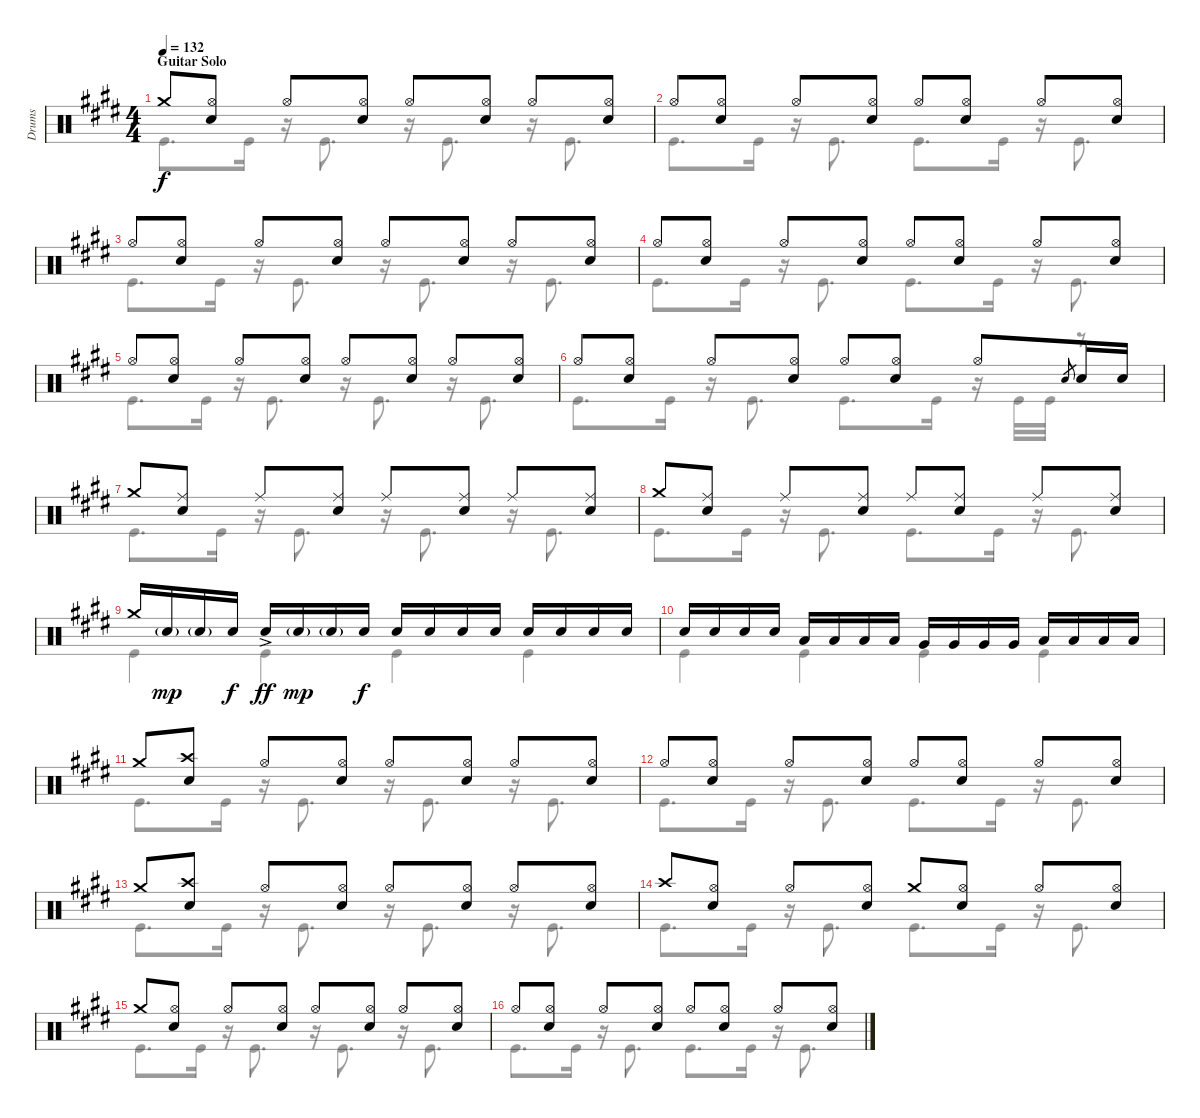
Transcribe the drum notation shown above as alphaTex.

\track ("Drums" "Drums") {instrument percussion}
\staff {score}
\articulation defaults
\voice
\ts (4 4)
\section ("" "Guitar Solo")
\tempo 132
\clef neutral
\ks c#minor "Crash medium (hit)".8{dy f}
("Hi-Hat (open)" "Electric Snare (hit)").8 "Hi-Hat (open)".8 ("Hi-Hat (open)" "Electric Snare (hit)").8 "Hi-Hat (open)".8 ("Hi-Hat (open)" "Electric Snare (hit)").8 "Hi-Hat (open)".8 ("Hi-Hat (open)" "Electric Snare (hit)").8 |
"Hi-Hat (open)".8 ("Hi-Hat (open)" "Electric Snare (hit)").8 "Hi-Hat (open)".8 ("Hi-Hat (open)" "Electric Snare (hit)").8 "Hi-Hat (open)".8 ("Hi-Hat (open)" "Electric Snare (hit)").8 "Hi-Hat (open)".8 ("Hi-Hat (open)" "Electric Snare (hit)").8 |
"Hi-Hat (open)".8 ("Hi-Hat (open)" "Electric Snare (hit)").8 "Hi-Hat (open)".8 ("Hi-Hat (open)" "Electric Snare (hit)").8 "Hi-Hat (open)".8 ("Hi-Hat (open)" "Electric Snare (hit)").8 "Hi-Hat (open)".8 ("Hi-Hat (open)" "Electric Snare (hit)").8 |
"Hi-Hat (open)".8 ("Hi-Hat (open)" "Electric Snare (hit)").8 "Hi-Hat (open)".8 ("Hi-Hat (open)" "Electric Snare (hit)").8 "Hi-Hat (open)".8 ("Hi-Hat (open)" "Electric Snare (hit)").8 "Hi-Hat (open)".8 ("Hi-Hat (open)" "Electric Snare (hit)").8 |
"Hi-Hat (open)".8 ("Hi-Hat (open)" "Electric Snare (hit)").8 "Hi-Hat (open)".8 ("Hi-Hat (open)" "Electric Snare (hit)").8 "Hi-Hat (open)".8 ("Hi-Hat (open)" "Electric Snare (hit)").8 "Hi-Hat (open)".8 ("Hi-Hat (open)" "Electric Snare (hit)").8 |
"Hi-Hat (open)".8 ("Hi-Hat (open)" "Electric Snare (hit)").8 "Hi-Hat (open)".8 ("Hi-Hat (open)" "Electric Snare (hit)").8 "Hi-Hat (open)".8 ("Hi-Hat (open)" "Electric Snare (hit)").8 "Hi-Hat (open)".8 "Electric Snare (hit)".8{gr} "Electric Snare (hit)".16 "Electric Snare (hit)".16 |
"Crash medium (hit)".8 ("Ride (middle)" "Electric Snare (hit)").8 "Ride (middle)".8 ("Ride (middle)" "Electric Snare (hit)").8 "Ride (middle)".8 ("Ride (middle)" "Electric Snare (hit)").8 "Ride (middle)".8 ("Ride (middle)" "Electric Snare (hit)").8 |
"Crash medium (hit)".8 ("Ride (middle)" "Electric Snare (hit)").8 "Ride (middle)".8 ("Ride (middle)" "Electric Snare (hit)").8 "Ride (middle)".8 ("Ride (middle)" "Electric Snare (hit)").8 "Ride (middle)".8 ("Ride (middle)" "Electric Snare (hit)").8 |
"Crash medium (hit)".16 "Electric Snare (hit)"{g}.16{dy mp} "Electric Snare (hit)"{g}.16 "Electric Snare (hit)".16{dy f} "Electric Snare (hit)"{ac}.16{dy ff} "Electric Snare (hit)"{g}.16{dy mp} "Electric Snare (hit)"{g}.16 "Electric Snare (hit)".16{dy f} "Electric Snare (hit)".16 "Electric Snare (hit)".16 "Electric Snare (hit)".16 "Electric Snare (hit)".16 "Electric Snare (hit)".16 "Electric Snare (hit)".16 "Electric Snare (hit)".16 "Electric Snare (hit)".16 |
"Electric Snare (hit)".16 "Electric Snare (hit)".16 "Electric Snare (hit)".16 "Electric Snare (hit)".16 "Low Tom (hit)".16 "Low Tom (hit)".16 "Low Tom (hit)".16 "Low Tom (hit)".16 "Very Low Tom (hit)".16 "Very Low Tom (hit)".16 "Very Low Tom (hit)".16 "Very Low Tom (hit)".16 "Low Floor Tom (hit)".16 "Low Floor Tom (hit)".16 "Low Floor Tom (hit)".16 "Low Floor Tom (hit)".16 |
"Crash medium (hit)".8 ("Crash high (hit)" "Electric Snare (hit)").8 "Hi-Hat (open)".8 ("Hi-Hat (open)" "Electric Snare (hit)").8 "Hi-Hat (open)".8 ("Hi-Hat (open)" "Electric Snare (hit)").8 "Hi-Hat (open)".8 ("Hi-Hat (open)" "Electric Snare (hit)").8 |
"Hi-Hat (open)".8 ("Hi-Hat (open)" "Electric Snare (hit)").8 "Hi-Hat (open)".8 ("Hi-Hat (open)" "Electric Snare (hit)").8 "Hi-Hat (open)".8 ("Hi-Hat (open)" "Electric Snare (hit)").8 "Hi-Hat (open)".8 ("Hi-Hat (open)" "Electric Snare (hit)").8 |
"Crash medium (hit)".8 ("Crash high (hit)" "Electric Snare (hit)").8 "Hi-Hat (open)".8 ("Hi-Hat (open)" "Electric Snare (hit)").8 "Hi-Hat (open)".8 ("Hi-Hat (open)" "Electric Snare (hit)").8 "Hi-Hat (open)".8 ("Hi-Hat (open)" "Electric Snare (hit)").8 |
"Crash high (hit)".8 ("Hi-Hat (open)" "Electric Snare (hit)").8 "Hi-Hat (open)".8 ("Hi-Hat (open)" "Electric Snare (hit)").8 "Crash medium (hit)".8 ("Hi-Hat (open)" "Electric Snare (hit)").8 "Hi-Hat (open)".8 ("Hi-Hat (open)" "Electric Snare (hit)").8 |
"Crash medium (hit)".8 ("Hi-Hat (open)" "Electric Snare (hit)").8 "Hi-Hat (open)".8 ("Hi-Hat (open)" "Electric Snare (hit)").8 "Hi-Hat (open)".8 ("Hi-Hat (open)" "Electric Snare (hit)").8 "Hi-Hat (open)".8 ("Hi-Hat (open)" "Electric Snare (hit)").8 |
"Hi-Hat (open)".8 ("Hi-Hat (open)" "Electric Snare (hit)").8 "Hi-Hat (open)".8 ("Hi-Hat (open)" "Electric Snare (hit)").8 "Hi-Hat (open)".8 ("Hi-Hat (open)" "Electric Snare (hit)").8 "Hi-Hat (open)".8 ("Hi-Hat (open)" "Electric Snare (hit)").8
\voice
\clef neutral
\ottava regular
\simile none
\ks c#minor "Kick (hit)".8{d dy f} "Kick (hit)".16
r.16 "Kick (hit)".8{d} r.16 "Kick (hit)".8{d} r.16 "Kick (hit)".8{d} |
"Kick (hit)".8{d} "Kick (hit)".16 r.16 "Kick (hit)".8{d} "Kick (hit)".8{d} "Kick (hit)".16 r.16 "Kick (hit)".8{d} |
"Kick (hit)".8{d} "Kick (hit)".16 r.16 "Kick (hit)".8{d} r.16 "Kick (hit)".8{d} r.16 "Kick (hit)".8{d} |
"Kick (hit)".8{d} "Kick (hit)".16 r.16 "Kick (hit)".8{d} "Kick (hit)".8{d} "Kick (hit)".16 r.16 "Kick (hit)".8{d} |
"Kick (hit)".8{d} "Kick (hit)".16 r.16 "Kick (hit)".8{d} r.16 "Kick (hit)".8{d} r.16 "Kick (hit)".8{d} |
"Kick (hit)".8{d} "Kick (hit)".16 r.16 "Kick (hit)".8{d} "Kick (hit)".8{d} "Kick (hit)".16 r.16 "Kick (hit)".32 "Kick (hit)".32 r.8 |
"Kick (hit)".8{d} "Kick (hit)".16 r.16 "Kick (hit)".8{d} r.16 "Kick (hit)".8{d} r.16 "Kick (hit)".8{d} |
"Kick (hit)".8{d} "Kick (hit)".16 r.16 "Kick (hit)".8{d} "Kick (hit)".8{d} "Kick (hit)".16 r.16 "Kick (hit)".8{d} |
"Kick (hit)".4 "Kick (hit)".4 "Kick (hit)".4 "Kick (hit)".4 |
"Kick (hit)".4 "Kick (hit)".4 "Kick (hit)".4 "Kick (hit)".4 |
"Kick (hit)".8{d} "Kick (hit)".16 r.16 "Kick (hit)".8{d} r.16 "Kick (hit)".8{d} r.16 "Kick (hit)".8{d} |
"Kick (hit)".8{d} "Kick (hit)".16 r.16 "Kick (hit)".8{d} "Kick (hit)".8{d} "Kick (hit)".16 r.16 "Kick (hit)".8{d} |
"Kick (hit)".8{d} "Kick (hit)".16 r.16 "Kick (hit)".8{d} r.16 "Kick (hit)".8{d} r.16 "Kick (hit)".8{d} |
"Kick (hit)".8{d} "Kick (hit)".16 r.16 "Kick (hit)".8{d} "Kick (hit)".8{d} "Kick (hit)".16 r.16 "Kick (hit)".8{d} |
"Kick (hit)".8{d} "Kick (hit)".16 r.16 "Kick (hit)".8{d} r.16 "Kick (hit)".8{d} r.16 "Kick (hit)".8{d} |
"Kick (hit)".8{d} "Kick (hit)".16 r.16 "Kick (hit)".8{d} "Kick (hit)".8{d} "Kick (hit)".16 r.16 "Kick (hit)".8{d}
